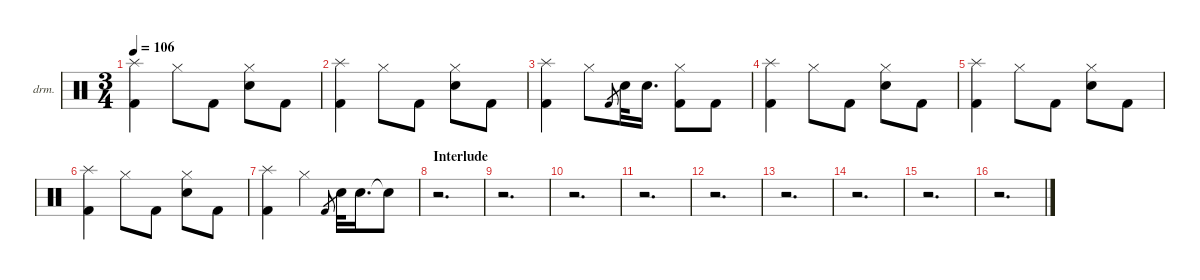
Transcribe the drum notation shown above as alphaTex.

\defaultSystemsLayout 4
\hideDynamics
\bracketExtendMode nobrackets
\firstSystemTrackNameOrientation horizontal
\otherSystemsTrackNameOrientation horizontal
\track ("Lars Ulrich" "drm.") {instrument percussion}
\staff {score}
\articulation defaults
\ts (3 4)
\tempo 106
\clef neutral
\ks c
("Splash (hit)" "Kick (hit) 2").4{dy fff} "Hi-Hat (closed)".8{dy f} "Kick (hit) 2".8 ("Hi-Hat (closed)" "Snare (hit) 2").8 "Kick (hit) 2".8 |
("Splash (hit)" "Kick (hit) 2").4{dy fff} "Hi-Hat (closed)".8{dy f} "Kick (hit) 2".8 ("Hi-Hat (closed)" "Snare (hit) 2").8 "Kick (hit) 2".8 |
("Splash (hit)" "Kick (hit) 2").4{dy fff} "Hi-Hat (closed)".8{dy f} "Kick (hit) 2".8{gr dy mf} "Snare (hit) 2".32{dy f} "Snare (hit) 2".16{d} ("Hi-Hat (closed)" "Kick (hit) 2").8 "Kick (hit) 2".8 |
("Splash (hit)" "Kick (hit) 2").4{dy fff} "Hi-Hat (closed)".8{dy f} "Kick (hit) 2".8 ("Hi-Hat (closed)" "Snare (hit) 2").8 "Kick (hit) 2".8 |
("Splash (hit)" "Kick (hit) 2").4{dy fff} "Hi-Hat (closed)".8{dy f} "Kick (hit) 2".8 ("Hi-Hat (closed)" "Snare (hit) 2").8 "Kick (hit) 2".8 |
("Splash (hit)" "Kick (hit) 2").4{dy fff} "Hi-Hat (closed)".8{dy f} "Kick (hit) 2".8 ("Hi-Hat (closed)" "Snare (hit) 2").8 "Kick (hit) 2".8 |
("Splash (hit)" "Kick (hit) 2").4{dy fff} "Hi-Hat (closed)".4{dy f} "Kick (hit) 2".8{gr dy mf} "Snare (hit) 2".32{dy f} "Snare (hit) 2".16{d} "Snare (hit) 2"{t}.8 |
\section ("" "Interlude")
r.2{d} |
r.2{d} |
r.2{d} |
r.2{d} |
r.2{d} |
r.2{d} |
r.2{d} |
r.2{d} |
r.2{d}
